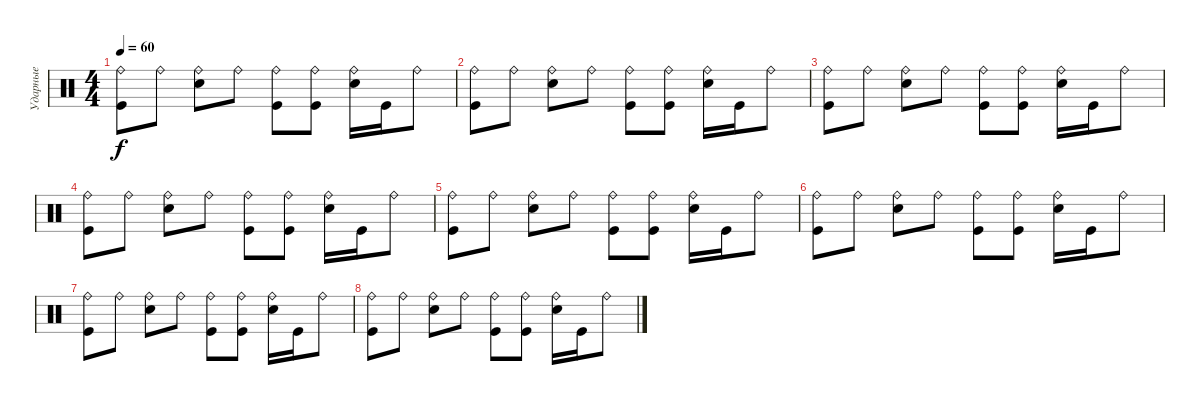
\track ("Ударные" "Ударные") {instrument percussion}
\staff {score}
\articulation defaults
\ts (4 4)
\tempo 60
\clef neutral
\ks c
("Ride (bell)" "Kick (hit)").8{dy f} "Ride (bell)".8 ("Ride (bell)" "Electric Snare (hit)").8 "Ride (bell)".8 ("Ride (bell)" "Kick (hit)").8 ("Ride (bell)" "Kick (hit)").8 ("Ride (bell)" "Electric Snare (hit)").16 "Kick (hit)".16 "Ride (bell)".8 |
("Ride (bell)" "Kick (hit)").8 "Ride (bell)".8 ("Ride (bell)" "Electric Snare (hit)").8 "Ride (bell)".8 ("Ride (bell)" "Kick (hit)").8 ("Ride (bell)" "Kick (hit)").8 ("Ride (bell)" "Electric Snare (hit)").16 "Kick (hit)".16 "Ride (bell)".8 |
("Ride (bell)" "Kick (hit)").8 "Ride (bell)".8 ("Ride (bell)" "Electric Snare (hit)").8 "Ride (bell)".8 ("Ride (bell)" "Kick (hit)").8 ("Ride (bell)" "Kick (hit)").8 ("Ride (bell)" "Electric Snare (hit)").16 "Kick (hit)".16 "Ride (bell)".8 |
("Ride (bell)" "Kick (hit)").8 "Ride (bell)".8 ("Ride (bell)" "Electric Snare (hit)").8 "Ride (bell)".8 ("Ride (bell)" "Kick (hit)").8 ("Ride (bell)" "Kick (hit)").8 ("Ride (bell)" "Electric Snare (hit)").16 "Kick (hit)".16 "Ride (bell)".8 |
("Ride (bell)" "Kick (hit)").8 "Ride (bell)".8 ("Ride (bell)" "Electric Snare (hit)").8 "Ride (bell)".8 ("Ride (bell)" "Kick (hit)").8 ("Ride (bell)" "Kick (hit)").8 ("Ride (bell)" "Electric Snare (hit)").16 "Kick (hit)".16 "Ride (bell)".8 |
("Ride (bell)" "Kick (hit)").8 "Ride (bell)".8 ("Ride (bell)" "Electric Snare (hit)").8 "Ride (bell)".8 ("Ride (bell)" "Kick (hit)").8 ("Ride (bell)" "Kick (hit)").8 ("Ride (bell)" "Electric Snare (hit)").16 "Kick (hit)".16 "Ride (bell)".8 |
("Ride (bell)" "Kick (hit)").8 "Ride (bell)".8 ("Ride (bell)" "Electric Snare (hit)").8 "Ride (bell)".8 ("Ride (bell)" "Kick (hit)").8 ("Ride (bell)" "Kick (hit)").8 ("Ride (bell)" "Electric Snare (hit)").16 "Kick (hit)".16 "Ride (bell)".8 |
("Ride (bell)" "Kick (hit)").8 "Ride (bell)".8 ("Ride (bell)" "Electric Snare (hit)").8 "Ride (bell)".8 ("Ride (bell)" "Kick (hit)").8 ("Ride (bell)" "Kick (hit)").8 ("Ride (bell)" "Electric Snare (hit)").16 "Kick (hit)".16 "Ride (bell)".8
